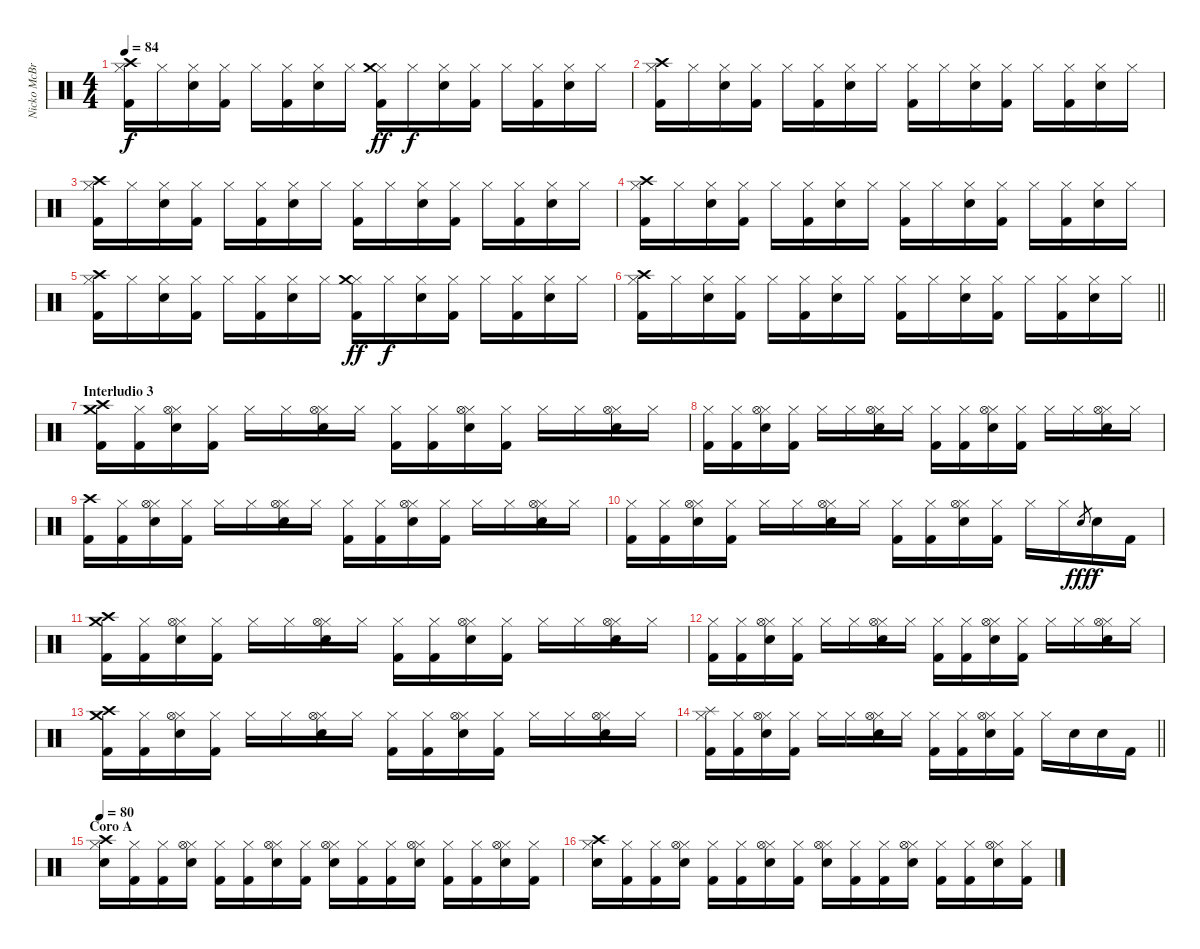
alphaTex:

\track ("Nicko McBrain" "Nicko McBr") {instrument percussion}
\staff {score}
\articulation defaults
\ts (4 4)
\tempo 84
\clef neutral
\ks c
("Kick (hit) 2" "Hi-Hat (closed)" "Crash high (hit)").16{dy f} "Hi-Hat (closed)".16 ("Snare (hit) 2" "Hi-Hat (closed)").16 ("Kick (hit) 2" "Hi-Hat (closed)").16 "Hi-Hat (closed)".16 ("Kick (hit) 2" "Hi-Hat (closed)").16 ("Snare (hit) 2" "Hi-Hat (closed)").16 "Hi-Hat (closed)".16 ("Kick (hit) 2" "Hi-Hat (closed)" "Crash medium (hit)").16{dy ff} "Hi-Hat (closed)".16{dy f} ("Snare (hit) 2" "Hi-Hat (closed)").16 ("Kick (hit) 2" "Hi-Hat (closed)").16 "Hi-Hat (closed)".16 ("Kick (hit) 2" "Hi-Hat (closed)").16 ("Snare (hit) 2" "Hi-Hat (closed)").16 "Hi-Hat (closed)".16 |
("Kick (hit) 2" "Hi-Hat (closed)" "Crash high (hit)").16 "Hi-Hat (closed)".16 ("Snare (hit) 2" "Hi-Hat (closed)").16 ("Kick (hit) 2" "Hi-Hat (closed)").16 "Hi-Hat (closed)".16 ("Kick (hit) 2" "Hi-Hat (closed)").16 ("Snare (hit) 2" "Hi-Hat (closed)").16 "Hi-Hat (closed)".16 ("Kick (hit) 2" "Hi-Hat (closed)").16 "Hi-Hat (closed)".16 ("Snare (hit) 2" "Hi-Hat (closed)").16 ("Kick (hit) 2" "Hi-Hat (closed)").16 "Hi-Hat (closed)".16 ("Kick (hit) 2" "Hi-Hat (closed)").16 ("Snare (hit) 2" "Hi-Hat (closed)").16 "Hi-Hat (closed)".16 |
("Kick (hit) 2" "Hi-Hat (closed)" "Crash high (hit)").16 "Hi-Hat (closed)".16 ("Snare (hit) 2" "Hi-Hat (closed)").16 ("Kick (hit) 2" "Hi-Hat (closed)").16 "Hi-Hat (closed)".16 ("Kick (hit) 2" "Hi-Hat (closed)").16 ("Snare (hit) 2" "Hi-Hat (closed)").16 "Hi-Hat (closed)".16 ("Kick (hit) 2" "Hi-Hat (closed)").16 "Hi-Hat (closed)".16 ("Snare (hit) 2" "Hi-Hat (closed)").16 ("Kick (hit) 2" "Hi-Hat (closed)").16 "Hi-Hat (closed)".16 ("Kick (hit) 2" "Hi-Hat (closed)").16 ("Snare (hit) 2" "Hi-Hat (closed)").16 "Hi-Hat (closed)".16 |
("Kick (hit) 2" "Hi-Hat (closed)" "Crash high (hit)").16 "Hi-Hat (closed)".16 ("Snare (hit) 2" "Hi-Hat (closed)").16 ("Kick (hit) 2" "Hi-Hat (closed)").16 "Hi-Hat (closed)".16 ("Kick (hit) 2" "Hi-Hat (closed)").16 ("Snare (hit) 2" "Hi-Hat (closed)").16 "Hi-Hat (closed)".16 ("Kick (hit) 2" "Hi-Hat (closed)").16 "Hi-Hat (closed)".16 ("Snare (hit) 2" "Hi-Hat (closed)").16 ("Kick (hit) 2" "Hi-Hat (closed)").16 "Hi-Hat (closed)".16 ("Kick (hit) 2" "Hi-Hat (closed)").16 ("Snare (hit) 2" "Hi-Hat (closed)").16 "Hi-Hat (closed)".16 |
("Kick (hit) 2" "Hi-Hat (closed)" "Crash high (hit)").16 "Hi-Hat (closed)".16 ("Snare (hit) 2" "Hi-Hat (closed)").16 ("Kick (hit) 2" "Hi-Hat (closed)").16 "Hi-Hat (closed)".16 ("Kick (hit) 2" "Hi-Hat (closed)").16 ("Snare (hit) 2" "Hi-Hat (closed)").16 "Hi-Hat (closed)".16 ("Kick (hit) 2" "Hi-Hat (closed)" "Crash medium (hit)").16{dy ff} "Hi-Hat (closed)".16{dy f} ("Snare (hit) 2" "Hi-Hat (closed)").16 ("Kick (hit) 2" "Hi-Hat (closed)").16 "Hi-Hat (closed)".16 ("Kick (hit) 2" "Hi-Hat (closed)").16 ("Snare (hit) 2" "Hi-Hat (closed)").16 "Hi-Hat (closed)".16 |
\barLineRight lightlight
("Kick (hit) 2" "Hi-Hat (closed)" "Crash high (hit)").16 "Hi-Hat (closed)".16 ("Snare (hit) 2" "Hi-Hat (closed)").16 ("Kick (hit) 2" "Hi-Hat (closed)").16 "Hi-Hat (closed)".16 ("Kick (hit) 2" "Hi-Hat (closed)").16 ("Snare (hit) 2" "Hi-Hat (closed)").16 "Hi-Hat (closed)".16 ("Kick (hit) 2" "Hi-Hat (closed)").16 "Hi-Hat (closed)".16 ("Snare (hit) 2" "Hi-Hat (closed)").16 ("Kick (hit) 2" "Hi-Hat (closed)").16 "Hi-Hat (closed)".16 ("Kick (hit) 2" "Hi-Hat (closed)").16 ("Snare (hit) 2" "Hi-Hat (closed)").16 "Hi-Hat (closed)".16 |
\section ("" "Interludio 3")
("Kick (hit) 2" "Crash high (hit)" "Crash medium (hit)").16 ("Kick (hit) 2" "Hi-Hat (closed)").16 ("Snare (hit) 2" "Hi-Hat (closed)" "Hi-Hat (open)").16 ("Kick (hit) 2" "Hi-Hat (closed)").16 "Hi-Hat (closed)".16 "Hi-Hat (closed)".16 ("Snare (hit) 2" "Hi-Hat (closed)" "Hi-Hat (open)").16 "Hi-Hat (closed)".16 ("Kick (hit) 2" "Hi-Hat (closed)").16 ("Kick (hit) 2" "Hi-Hat (closed)").16 ("Snare (hit) 2" "Hi-Hat (closed)" "Hi-Hat (open)").16 ("Kick (hit) 2" "Hi-Hat (closed)").16 "Hi-Hat (closed)".16 "Hi-Hat (closed)".16 ("Snare (hit) 2" "Hi-Hat (closed)" "Hi-Hat (open)").16 "Hi-Hat (closed)".16 |
("Kick (hit) 2" "Hi-Hat (closed)").16 ("Kick (hit) 2" "Hi-Hat (closed)").16 ("Snare (hit) 2" "Hi-Hat (closed)" "Hi-Hat (open)").16 ("Kick (hit) 2" "Hi-Hat (closed)").16 "Hi-Hat (closed)".16 "Hi-Hat (closed)".16 ("Snare (hit) 2" "Hi-Hat (closed)" "Hi-Hat (open)").16 "Hi-Hat (closed)".16 ("Kick (hit) 2" "Hi-Hat (closed)").16 ("Kick (hit) 2" "Hi-Hat (closed)").16 ("Snare (hit) 2" "Hi-Hat (closed)" "Hi-Hat (open)").16 ("Kick (hit) 2" "Hi-Hat (closed)").16 "Hi-Hat (closed)".16 "Hi-Hat (closed)".16 ("Snare (hit) 2" "Hi-Hat (closed)" "Hi-Hat (open)").16 "Hi-Hat (closed)".16 |
("Kick (hit) 2" "Crash high (hit)").16 ("Kick (hit) 2" "Hi-Hat (closed)").16 ("Snare (hit) 2" "Hi-Hat (closed)" "Hi-Hat (open)").16 ("Kick (hit) 2" "Hi-Hat (closed)").16 "Hi-Hat (closed)".16 "Hi-Hat (closed)".16 ("Snare (hit) 2" "Hi-Hat (closed)" "Hi-Hat (open)").16 "Hi-Hat (closed)".16 ("Kick (hit) 2" "Hi-Hat (closed)").16 ("Kick (hit) 2" "Hi-Hat (closed)").16 ("Snare (hit) 2" "Hi-Hat (closed)" "Hi-Hat (open)").16 ("Kick (hit) 2" "Hi-Hat (closed)").16 "Hi-Hat (closed)".16 "Hi-Hat (closed)".16 ("Snare (hit) 2" "Hi-Hat (closed)" "Hi-Hat (open)").16 "Hi-Hat (closed)".16 |
("Kick (hit) 2" "Hi-Hat (closed)").16 ("Kick (hit) 2" "Hi-Hat (closed)").16 ("Snare (hit) 2" "Hi-Hat (closed)" "Hi-Hat (open)").16 ("Kick (hit) 2" "Hi-Hat (closed)").16 "Hi-Hat (closed)".16 "Hi-Hat (closed)".16 ("Snare (hit) 2" "Hi-Hat (closed)" "Hi-Hat (open)").16 "Hi-Hat (closed)".16 ("Kick (hit) 2" "Hi-Hat (closed)").16 ("Kick (hit) 2" "Hi-Hat (closed)").16 ("Snare (hit) 2" "Hi-Hat (closed)" "Hi-Hat (open)").16 ("Kick (hit) 2" "Hi-Hat (closed)").16 "Hi-Hat (closed)".16 "Hi-Hat (closed)".16 "Snare (hit) 2".8{gr dy fff} "Snare (hit) 2".16{dy f} "Kick (hit) 2".16 |
("Kick (hit) 2" "Crash high (hit)" "Crash medium (hit)").16 ("Kick (hit) 2" "Hi-Hat (closed)").16 ("Snare (hit) 2" "Hi-Hat (closed)" "Hi-Hat (open)").16 ("Kick (hit) 2" "Hi-Hat (closed)").16 "Hi-Hat (closed)".16 "Hi-Hat (closed)".16 ("Snare (hit) 2" "Hi-Hat (closed)" "Hi-Hat (open)").16 "Hi-Hat (closed)".16 ("Kick (hit) 2" "Hi-Hat (closed)").16 ("Kick (hit) 2" "Hi-Hat (closed)").16 ("Snare (hit) 2" "Hi-Hat (closed)" "Hi-Hat (open)").16 ("Kick (hit) 2" "Hi-Hat (closed)").16 "Hi-Hat (closed)".16 "Hi-Hat (closed)".16 ("Snare (hit) 2" "Hi-Hat (closed)" "Hi-Hat (open)").16 "Hi-Hat (closed)".16 |
("Kick (hit) 2" "Hi-Hat (closed)").16 ("Kick (hit) 2" "Hi-Hat (closed)").16 ("Snare (hit) 2" "Hi-Hat (closed)" "Hi-Hat (open)").16 ("Kick (hit) 2" "Hi-Hat (closed)").16 "Hi-Hat (closed)".16 "Hi-Hat (closed)".16 ("Snare (hit) 2" "Hi-Hat (closed)" "Hi-Hat (open)").16 "Hi-Hat (closed)".16 ("Kick (hit) 2" "Hi-Hat (closed)").16 ("Kick (hit) 2" "Hi-Hat (closed)").16 ("Snare (hit) 2" "Hi-Hat (closed)" "Hi-Hat (open)").16 ("Kick (hit) 2" "Hi-Hat (closed)").16 "Hi-Hat (closed)".16 "Hi-Hat (closed)".16 ("Snare (hit) 2" "Hi-Hat (closed)" "Hi-Hat (open)").16 "Hi-Hat (closed)".16 |
("Kick (hit) 2" "Crash high (hit)" "Crash medium (hit)").16 ("Kick (hit) 2" "Hi-Hat (closed)").16 ("Snare (hit) 2" "Hi-Hat (closed)" "Hi-Hat (open)").16 ("Kick (hit) 2" "Hi-Hat (closed)").16 "Hi-Hat (closed)".16 "Hi-Hat (closed)".16 ("Snare (hit) 2" "Hi-Hat (closed)" "Hi-Hat (open)").16 "Hi-Hat (closed)".16 ("Kick (hit) 2" "Hi-Hat (closed)").16 ("Kick (hit) 2" "Hi-Hat (closed)").16 ("Snare (hit) 2" "Hi-Hat (closed)" "Hi-Hat (open)").16 ("Kick (hit) 2" "Hi-Hat (closed)").16 "Hi-Hat (closed)".16 "Hi-Hat (closed)".16 ("Snare (hit) 2" "Hi-Hat (closed)" "Hi-Hat (open)").16 "Hi-Hat (closed)".16 |
\barLineRight lightlight
("Kick (hit) 2" "Hi-Hat (closed)" "Splash (hit)").16 ("Kick (hit) 2" "Hi-Hat (closed)").16 ("Snare (hit) 2" "Hi-Hat (closed)" "Hi-Hat (open)").16 ("Kick (hit) 2" "Hi-Hat (closed)").16 "Hi-Hat (closed)".16 "Hi-Hat (closed)".16 ("Snare (hit) 2" "Hi-Hat (closed)" "Hi-Hat (open)").16 "Hi-Hat (closed)".16 ("Kick (hit) 2" "Hi-Hat (closed)").16 ("Kick (hit) 2" "Hi-Hat (closed)").16 ("Snare (hit) 2" "Hi-Hat (closed)" "Hi-Hat (open)").16 ("Kick (hit) 2" "Hi-Hat (closed)").16 "Hi-Hat (closed)".16 "Snare (hit) 2".16 "Snare (hit) 2".16 "Kick (hit) 2".16 |
\section ("" "Coro A")
\tempo 80
("Snare (hit) 2" "Hi-Hat (closed)" "Crash high (hit)").16 ("Kick (hit) 2" "Hi-Hat (closed)").16 ("Kick (hit) 2" "Hi-Hat (closed)").16 ("Snare (hit) 2" "Hi-Hat (closed)" "Hi-Hat (open)").16 ("Kick (hit) 2" "Hi-Hat (closed)").16 ("Kick (hit) 2" "Hi-Hat (closed)").16 ("Snare (hit) 2" "Hi-Hat (closed)" "Hi-Hat (open)").16 ("Kick (hit) 2" "Hi-Hat (closed)").16 ("Snare (hit) 2" "Hi-Hat (closed)" "Hi-Hat (open)").16 ("Kick (hit) 2" "Hi-Hat (closed)").16 ("Kick (hit) 2" "Hi-Hat (closed)").16 ("Snare (hit) 2" "Hi-Hat (closed)" "Hi-Hat (open)").16 ("Kick (hit) 2" "Hi-Hat (closed)").16 ("Kick (hit) 2" "Hi-Hat (closed)").16 ("Snare (hit) 2" "Hi-Hat (closed)" "Hi-Hat (open)").16 ("Kick (hit) 2" "Hi-Hat (closed)").16 |
("Snare (hit) 2" "Hi-Hat (closed)" "Crash high (hit)").16 ("Kick (hit) 2" "Hi-Hat (closed)").16 ("Kick (hit) 2" "Hi-Hat (closed)").16 ("Snare (hit) 2" "Hi-Hat (closed)" "Hi-Hat (open)").16 ("Kick (hit) 2" "Hi-Hat (closed)").16 ("Kick (hit) 2" "Hi-Hat (closed)").16 ("Snare (hit) 2" "Hi-Hat (closed)" "Hi-Hat (open)").16 ("Kick (hit) 2" "Hi-Hat (closed)").16 ("Snare (hit) 2" "Hi-Hat (closed)" "Hi-Hat (open)").16 ("Kick (hit) 2" "Hi-Hat (closed)").16 ("Kick (hit) 2" "Hi-Hat (closed)").16 ("Snare (hit) 2" "Hi-Hat (closed)" "Hi-Hat (open)").16 ("Kick (hit) 2" "Hi-Hat (closed)").16 ("Kick (hit) 2" "Hi-Hat (closed)").16 ("Snare (hit) 2" "Hi-Hat (closed)" "Hi-Hat (open)").16 ("Kick (hit) 2" "Hi-Hat (closed)").16
